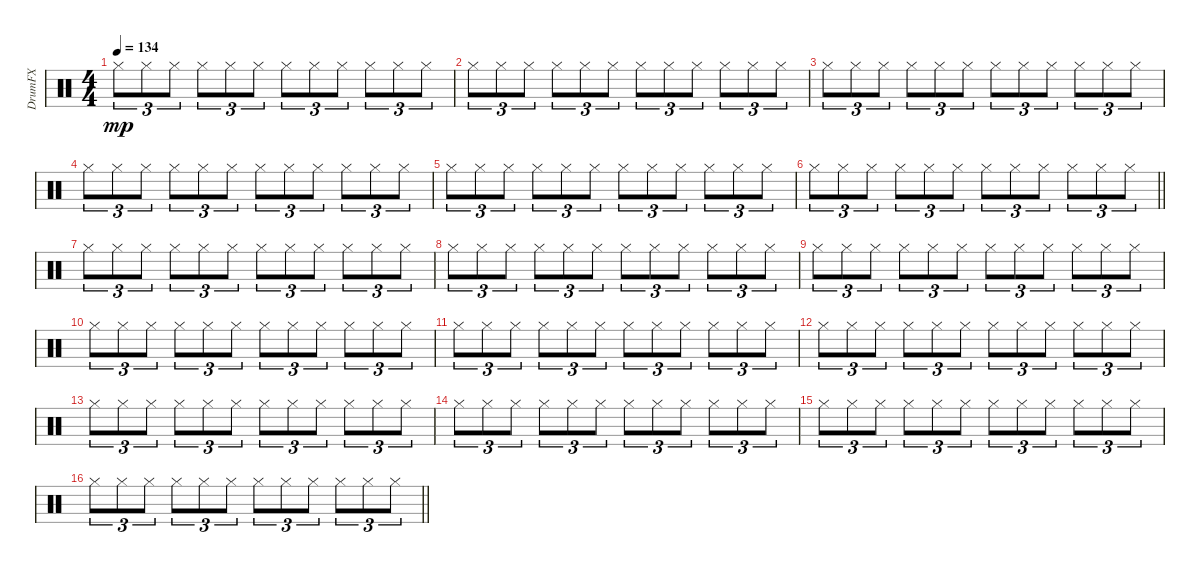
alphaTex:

\track ("DrumFX" "DrumFX") {instrument percussion}
\staff {score}
\articulation defaults
\ts (4 4)
\tempo 134
\clef neutral
\ks c "Hi-Hat (closed)".8{tu (3 2) dy mp} "Hi-Hat (closed)".8{tu (3 2)} "Hi-Hat (closed)".8{tu (3 2)} "Hi-Hat (closed)".8{tu (3 2)} "Hi-Hat (closed)".8{tu (3 2)} "Hi-Hat (closed)".8{tu (3 2)} "Hi-Hat (closed)".8{tu (3 2)} "Hi-Hat (closed)".8{tu (3 2)} "Hi-Hat (closed)".8{tu (3 2)} "Hi-Hat (closed)".8{tu (3 2)} "Hi-Hat (closed)".8{tu (3 2)} "Hi-Hat (closed)".8{tu (3 2)}
|
"Hi-Hat (closed)".8{tu (3 2)} "Hi-Hat (closed)".8{tu (3 2)} "Hi-Hat (closed)".8{tu (3 2)} "Hi-Hat (closed)".8{tu (3 2)} "Hi-Hat (closed)".8{tu (3 2)} "Hi-Hat (closed)".8{tu (3 2)} "Hi-Hat (closed)".8{tu (3 2)} "Hi-Hat (closed)".8{tu (3 2)} "Hi-Hat (closed)".8{tu (3 2)} "Hi-Hat (closed)".8{tu (3 2)} "Hi-Hat (closed)".8{tu (3 2)} "Hi-Hat (closed)".8{tu (3 2)} |
"Hi-Hat (closed)".8{tu (3 2)} "Hi-Hat (closed)".8{tu (3 2)} "Hi-Hat (closed)".8{tu (3 2)} "Hi-Hat (closed)".8{tu (3 2)} "Hi-Hat (closed)".8{tu (3 2)} "Hi-Hat (closed)".8{tu (3 2)} "Hi-Hat (closed)".8{tu (3 2)} "Hi-Hat (closed)".8{tu (3 2)} "Hi-Hat (closed)".8{tu (3 2)} "Hi-Hat (closed)".8{tu (3 2)} "Hi-Hat (closed)".8{tu (3 2)} "Hi-Hat (closed)".8{tu (3 2)} |
"Hi-Hat (closed)".8{tu (3 2)} "Hi-Hat (closed)".8{tu (3 2)} "Hi-Hat (closed)".8{tu (3 2)} "Hi-Hat (closed)".8{tu (3 2)} "Hi-Hat (closed)".8{tu (3 2)} "Hi-Hat (closed)".8{tu (3 2)} "Hi-Hat (closed)".8{tu (3 2)} "Hi-Hat (closed)".8{tu (3 2)} "Hi-Hat (closed)".8{tu (3 2)} "Hi-Hat (closed)".8{tu (3 2)} "Hi-Hat (closed)".8{tu (3 2)} "Hi-Hat (closed)".8{tu (3 2)} |
"Hi-Hat (closed)".8{tu (3 2)} "Hi-Hat (closed)".8{tu (3 2)} "Hi-Hat (closed)".8{tu (3 2)} "Hi-Hat (closed)".8{tu (3 2)} "Hi-Hat (closed)".8{tu (3 2)} "Hi-Hat (closed)".8{tu (3 2)} "Hi-Hat (closed)".8{tu (3 2)} "Hi-Hat (closed)".8{tu (3 2)} "Hi-Hat (closed)".8{tu (3 2)} "Hi-Hat (closed)".8{tu (3 2)} "Hi-Hat (closed)".8{tu (3 2)} "Hi-Hat (closed)".8{tu (3 2)} |
\barLineRight lightlight "Hi-Hat (closed)".8{tu (3 2)} "Hi-Hat (closed)".8{tu (3 2)} "Hi-Hat (closed)".8{tu (3 2)} "Hi-Hat (closed)".8{tu (3 2)} "Hi-Hat (closed)".8{tu (3 2)} "Hi-Hat (closed)".8{tu (3 2)} "Hi-Hat (closed)".8{tu (3 2)} "Hi-Hat (closed)".8{tu (3 2)} "Hi-Hat (closed)".8{tu (3 2)} "Hi-Hat (closed)".8{tu (3 2)} "Hi-Hat (closed)".8{tu (3 2)} "Hi-Hat (closed)".8{tu (3 2)}
|
\section ("" "")
"Hi-Hat (closed)".8{tu (3 2)} "Hi-Hat (closed)".8{tu (3 2)} "Hi-Hat (closed)".8{tu (3 2)} "Hi-Hat (closed)".8{tu (3 2)} "Hi-Hat (closed)".8{tu (3 2)} "Hi-Hat (closed)".8{tu (3 2)} "Hi-Hat (closed)".8{tu (3 2)} "Hi-Hat (closed)".8{tu (3 2)} "Hi-Hat (closed)".8{tu (3 2)} "Hi-Hat (closed)".8{tu (3 2)} "Hi-Hat (closed)".8{tu (3 2)} "Hi-Hat (closed)".8{tu (3 2)} |
"Hi-Hat (closed)".8{tu (3 2)} "Hi-Hat (closed)".8{tu (3 2)} "Hi-Hat (closed)".8{tu (3 2)} "Hi-Hat (closed)".8{tu (3 2)} "Hi-Hat (closed)".8{tu (3 2)} "Hi-Hat (closed)".8{tu (3 2)} "Hi-Hat (closed)".8{tu (3 2)} "Hi-Hat (closed)".8{tu (3 2)} "Hi-Hat (closed)".8{tu (3 2)} "Hi-Hat (closed)".8{tu (3 2)} "Hi-Hat (closed)".8{tu (3 2)} "Hi-Hat (closed)".8{tu (3 2)} |
"Hi-Hat (closed)".8{tu (3 2)} "Hi-Hat (closed)".8{tu (3 2)} "Hi-Hat (closed)".8{tu (3 2)} "Hi-Hat (closed)".8{tu (3 2)} "Hi-Hat (closed)".8{tu (3 2)} "Hi-Hat (closed)".8{tu (3 2)} "Hi-Hat (closed)".8{tu (3 2)} "Hi-Hat (closed)".8{tu (3 2)} "Hi-Hat (closed)".8{tu (3 2)} "Hi-Hat (closed)".8{tu (3 2)} "Hi-Hat (closed)".8{tu (3 2)} "Hi-Hat (closed)".8{tu (3 2)} |
"Hi-Hat (closed)".8{tu (3 2)} "Hi-Hat (closed)".8{tu (3 2)} "Hi-Hat (closed)".8{tu (3 2)} "Hi-Hat (closed)".8{tu (3 2)} "Hi-Hat (closed)".8{tu (3 2)} "Hi-Hat (closed)".8{tu (3 2)} "Hi-Hat (closed)".8{tu (3 2)} "Hi-Hat (closed)".8{tu (3 2)} "Hi-Hat (closed)".8{tu (3 2)} "Hi-Hat (closed)".8{tu (3 2)} "Hi-Hat (closed)".8{tu (3 2)} "Hi-Hat (closed)".8{tu (3 2)} |
"Hi-Hat (closed)".8{tu (3 2)} "Hi-Hat (closed)".8{tu (3 2)} "Hi-Hat (closed)".8{tu (3 2)} "Hi-Hat (closed)".8{tu (3 2)} "Hi-Hat (closed)".8{tu (3 2)} "Hi-Hat (closed)".8{tu (3 2)} "Hi-Hat (closed)".8{tu (3 2)} "Hi-Hat (closed)".8{tu (3 2)} "Hi-Hat (closed)".8{tu (3 2)} "Hi-Hat (closed)".8{tu (3 2)} "Hi-Hat (closed)".8{tu (3 2)} "Hi-Hat (closed)".8{tu (3 2)} |
"Hi-Hat (closed)".8{tu (3 2)} "Hi-Hat (closed)".8{tu (3 2)} "Hi-Hat (closed)".8{tu (3 2)} "Hi-Hat (closed)".8{tu (3 2)} "Hi-Hat (closed)".8{tu (3 2)} "Hi-Hat (closed)".8{tu (3 2)} "Hi-Hat (closed)".8{tu (3 2)} "Hi-Hat (closed)".8{tu (3 2)} "Hi-Hat (closed)".8{tu (3 2)} "Hi-Hat (closed)".8{tu (3 2)} "Hi-Hat (closed)".8{tu (3 2)} "Hi-Hat (closed)".8{tu (3 2)} |
"Hi-Hat (closed)".8{tu (3 2)} "Hi-Hat (closed)".8{tu (3 2)} "Hi-Hat (closed)".8{tu (3 2)} "Hi-Hat (closed)".8{tu (3 2)} "Hi-Hat (closed)".8{tu (3 2)} "Hi-Hat (closed)".8{tu (3 2)} "Hi-Hat (closed)".8{tu (3 2)} "Hi-Hat (closed)".8{tu (3 2)} "Hi-Hat (closed)".8{tu (3 2)} "Hi-Hat (closed)".8{tu (3 2)} "Hi-Hat (closed)".8{tu (3 2)} "Hi-Hat (closed)".8{tu (3 2)} |
"Hi-Hat (closed)".8{tu (3 2)} "Hi-Hat (closed)".8{tu (3 2)} "Hi-Hat (closed)".8{tu (3 2)} "Hi-Hat (closed)".8{tu (3 2)} "Hi-Hat (closed)".8{tu (3 2)} "Hi-Hat (closed)".8{tu (3 2)} "Hi-Hat (closed)".8{tu (3 2)} "Hi-Hat (closed)".8{tu (3 2)} "Hi-Hat (closed)".8{tu (3 2)} "Hi-Hat (closed)".8{tu (3 2)} "Hi-Hat (closed)".8{tu (3 2)} "Hi-Hat (closed)".8{tu (3 2)} |
"Hi-Hat (closed)".8{tu (3 2)} "Hi-Hat (closed)".8{tu (3 2)} "Hi-Hat (closed)".8{tu (3 2)} "Hi-Hat (closed)".8{tu (3 2)} "Hi-Hat (closed)".8{tu (3 2)} "Hi-Hat (closed)".8{tu (3 2)} "Hi-Hat (closed)".8{tu (3 2)} "Hi-Hat (closed)".8{tu (3 2)} "Hi-Hat (closed)".8{tu (3 2)} "Hi-Hat (closed)".8{tu (3 2)} "Hi-Hat (closed)".8{tu (3 2)} "Hi-Hat (closed)".8{tu (3 2)} |
\barLineRight lightlight "Hi-Hat (closed)".8{tu (3 2)} "Hi-Hat (closed)".8{tu (3 2)} "Hi-Hat (closed)".8{tu (3 2)} "Hi-Hat (closed)".8{tu (3 2)} "Hi-Hat (closed)".8{tu (3 2)} "Hi-Hat (closed)".8{tu (3 2)} "Hi-Hat (closed)".8{tu (3 2)} "Hi-Hat (closed)".8{tu (3 2)} "Hi-Hat (closed)".8{tu (3 2)} "Hi-Hat (closed)".8{tu (3 2)} "Hi-Hat (closed)".8{tu (3 2)} "Hi-Hat (closed)".8{tu (3 2)}
